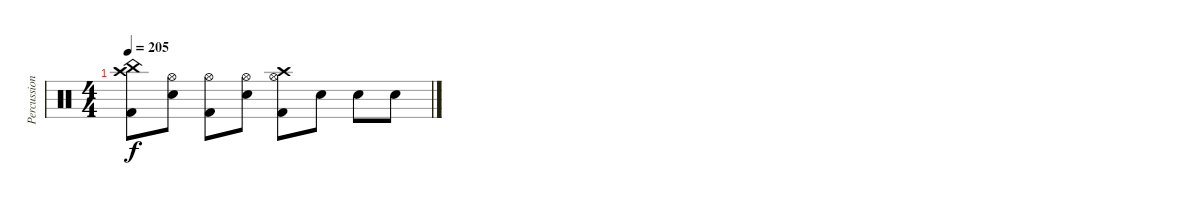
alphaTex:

\track ("Percussion" "Percussion") {instrument percussion}
\staff {score}
\articulation defaults
\ts (4 4)
\tempo 205
\clef neutral
\ks c
("China (hit)" "Crash high (hit)" "Kick (hit) 2").8{dy f} ("Hi-Hat (open)" "Electric Snare (hit)").8 ("Hi-Hat (open)" "Kick (hit) 2").8 ("Hi-Hat (open)" "Electric Snare (hit)").8 ("Crash high (hit)" "Hi-Hat (open)" "Kick (hit) 2").8 "Electric Snare (hit)".8 "Electric Snare (hit)".8 "Electric Snare (hit)".8
